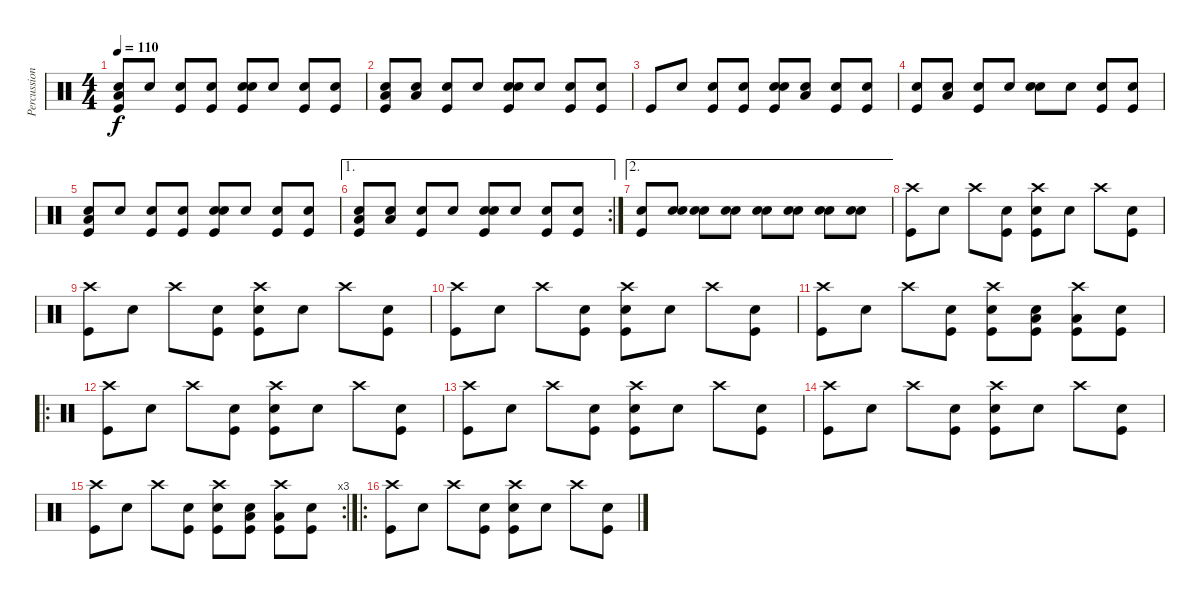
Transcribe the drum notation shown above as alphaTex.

\track ("Percussion" "Percussion") {instrument percussion}
\staff {score}
\articulation defaults
\ts (4 4)
\tempo 110
\clef neutral
\ks c
("Snare (hit)" "Low Tom (hit)" "Kick (hit)").8{dy f} "Snare (hit)".8 ("Snare (hit)" "Kick (hit)").8 ("Snare (hit)" "Kick (hit)").8 ("Snare (hit)" "Snare (hit) 2" "Kick (hit)").8 "Snare (hit)".8 ("Snare (hit)" "Kick (hit)").8 ("Snare (hit)" "Kick (hit)").8 |
("Snare (hit)" "Low Tom (hit)" "Kick (hit)").8 ("Snare (hit)" "Low Tom (hit)").8 ("Snare (hit)" "Kick (hit)").8 "Snare (hit)".8 ("Snare (hit)" "Snare (hit) 2" "Kick (hit)").8 "Snare (hit)".8 ("Snare (hit)" "Kick (hit)").8 ("Snare (hit)" "Kick (hit)").8 |
"Kick (hit)".8 "Snare (hit)".8 ("Snare (hit)" "Kick (hit)").8 ("Snare (hit)" "Kick (hit)").8 ("Snare (hit)" "Snare (hit) 2" "Kick (hit)").8 ("Snare (hit)" "Low Tom (hit)").8 ("Snare (hit)" "Kick (hit)").8 ("Snare (hit)" "Kick (hit)").8 |
("Snare (hit)" "Kick (hit)").8 ("Snare (hit)" "Low Tom (hit)").8 ("Snare (hit)" "Kick (hit)").8 "Snare (hit)".8 ("Snare (hit)" "Snare (hit) 2").8 "Snare (hit)".8 ("Snare (hit)" "Kick (hit)").8 ("Snare (hit)" "Kick (hit)").8 |
("Snare (hit)" "Low Tom (hit)" "Kick (hit)").8 "Snare (hit)".8 ("Snare (hit)" "Kick (hit)").8 ("Snare (hit)" "Kick (hit)").8 ("Snare (hit)" "Snare (hit) 2" "Kick (hit)").8 "Snare (hit)".8 ("Snare (hit)" "Kick (hit)").8 ("Snare (hit)" "Kick (hit)").8 |
\ae 1
\rc 2
("Snare (hit)" "Low Tom (hit)" "Kick (hit)").8 ("Snare (hit)" "Low Tom (hit)").8 ("Snare (hit)" "Kick (hit)").8 "Snare (hit)".8 ("Snare (hit)" "Snare (hit) 2" "Kick (hit)").8 "Snare (hit)".8 ("Snare (hit)" "Kick (hit)").8 ("Snare (hit)" "Kick (hit)").8 |
\ae 2
("Snare (hit)" "Kick (hit)").8 ("Snare (hit)" "Snare (hit) 2").8 ("Snare (hit)" "Snare (hit) 2").8 ("Snare (hit)" "Snare (hit) 2").8 ("Snare (hit)" "Snare (hit) 2").8 ("Snare (hit)" "Snare (hit) 2").8 ("Snare (hit)" "Snare (hit) 2").8 ("Snare (hit)" "Snare (hit) 2").8 |
("Crash high (hit)" "Kick (hit)").8 "Snare (hit)".8 "Crash high (hit)".8 ("Snare (hit)" "Kick (hit)").8 ("Crash high (hit)" "Snare (hit) 2" "Kick (hit)").8 "Snare (hit)".8 "Crash high (hit)".8 ("Snare (hit)" "Kick (hit)").8 |
("Crash high (hit)" "Kick (hit)").8 "Snare (hit)".8 "Crash high (hit)".8 ("Snare (hit)" "Kick (hit)").8 ("Crash high (hit)" "Snare (hit) 2" "Kick (hit)").8 "Snare (hit)".8 "Crash high (hit)".8 ("Snare (hit)" "Kick (hit)").8 |
("Crash high (hit)" "Kick (hit)").8 "Snare (hit)".8 "Crash high (hit)".8 ("Snare (hit)" "Kick (hit)").8 ("Crash high (hit)" "Snare (hit) 2" "Kick (hit)").8 "Snare (hit)".8 "Crash high (hit)".8 ("Snare (hit)" "Kick (hit)").8 |
("Crash high (hit)" "Kick (hit)").8 "Snare (hit)".8 "Crash high (hit)".8 ("Snare (hit)" "Kick (hit)").8 ("Crash high (hit)" "Snare (hit) 2" "Kick (hit)").8 ("Snare (hit)" "Low Tom (hit)" "Kick (hit)").8 ("Crash high (hit)" "Low Tom (hit)" "Kick (hit)").8 ("Snare (hit)" "Kick (hit)").8 |
\ro
("Crash high (hit)" "Kick (hit)").8 "Snare (hit)".8 "Crash high (hit)".8 ("Snare (hit)" "Kick (hit)").8 ("Crash high (hit)" "Snare (hit) 2" "Kick (hit)").8 "Snare (hit)".8 "Crash high (hit)".8 ("Snare (hit)" "Kick (hit)").8 |
("Crash high (hit)" "Kick (hit)").8 "Snare (hit)".8 "Crash high (hit)".8 ("Snare (hit)" "Kick (hit)").8 ("Crash high (hit)" "Snare (hit) 2" "Kick (hit)").8 "Snare (hit)".8 "Crash high (hit)".8 ("Snare (hit)" "Kick (hit)").8 |
("Crash high (hit)" "Kick (hit)").8 "Snare (hit)".8 "Crash high (hit)".8 ("Snare (hit)" "Kick (hit)").8 ("Crash high (hit)" "Snare (hit) 2" "Kick (hit)").8 "Snare (hit)".8 "Crash high (hit)".8 ("Snare (hit)" "Kick (hit)").8 |
\rc 3
("Crash high (hit)" "Kick (hit)").8 "Snare (hit)".8 "Crash high (hit)".8 ("Snare (hit)" "Kick (hit)").8 ("Crash high (hit)" "Snare (hit) 2" "Kick (hit)").8 ("Snare (hit)" "Low Tom (hit)" "Kick (hit)").8 ("Crash high (hit)" "Low Tom (hit)" "Kick (hit)").8 ("Snare (hit)" "Kick (hit)").8 |
\ro
("Crash high (hit)" "Kick (hit)").8 "Snare (hit)".8 "Crash high (hit)".8 ("Snare (hit)" "Kick (hit)").8 ("Crash high (hit)" "Snare (hit) 2" "Kick (hit)").8 "Snare (hit)".8 "Crash high (hit)".8 ("Snare (hit)" "Kick (hit)").8
